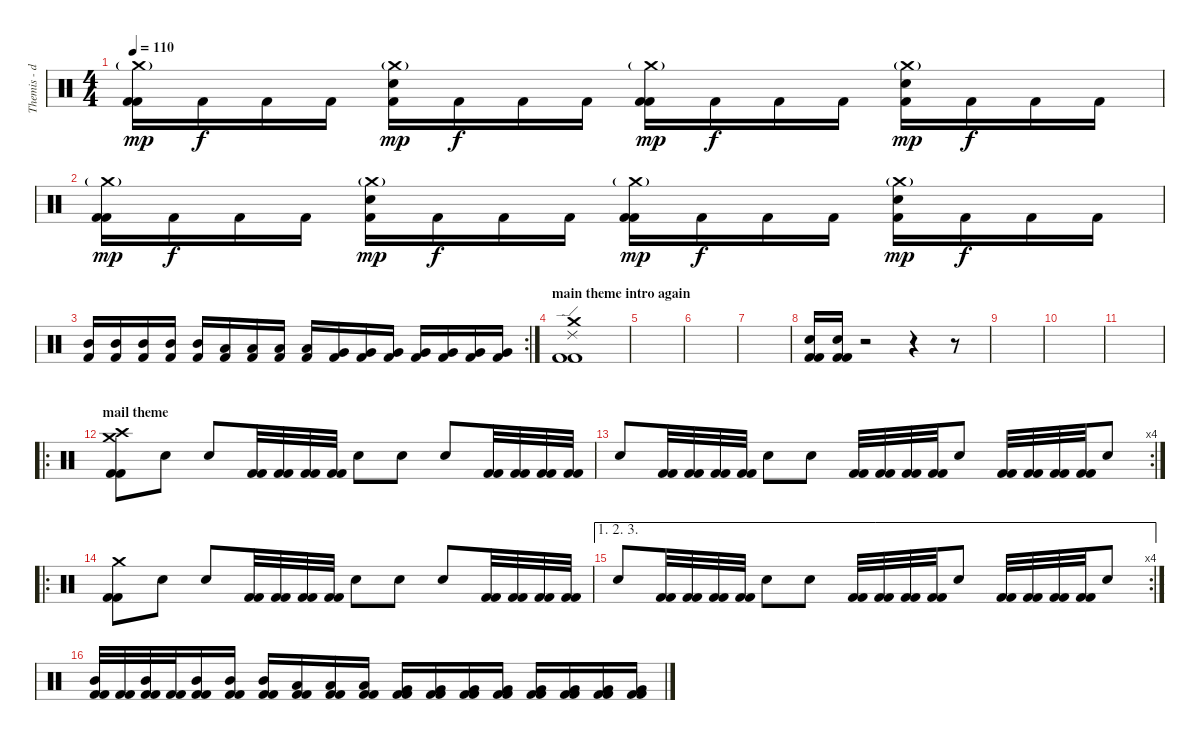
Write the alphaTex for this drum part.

\track ("Themis - drms" "Themis - d") {instrument percussion}
\staff {score}
\articulation defaults
\ts (4 4)
\tempo 110
\clef neutral
\ks c
("Crash medium (hit)"{g} "Kick (hit) 2" "Kick (hit) 2").16{dy mp} "Kick (hit) 2".16{dy f} "Kick (hit) 2".16 "Kick (hit) 2".16 ("Crash medium (hit)"{g} "Snare (hit) 2" "Kick (hit) 2").16{dy mp} "Kick (hit) 2".16{dy f} "Kick (hit) 2".16 "Kick (hit) 2".16 ("Crash medium (hit)"{g} "Kick (hit) 2" "Kick (hit) 2").16{dy mp} "Kick (hit) 2".16{dy f} "Kick (hit) 2".16 "Kick (hit) 2".16 ("Crash medium (hit)"{g} "Snare (hit) 2" "Kick (hit) 2").16{dy mp} "Kick (hit) 2".16{dy f} "Kick (hit) 2".16 "Kick (hit) 2".16 |
("Crash medium (hit)"{g} "Kick (hit) 2" "Kick (hit) 2").16{dy mp} "Kick (hit) 2".16{dy f} "Kick (hit) 2".16 "Kick (hit) 2".16 ("Crash medium (hit)"{g} "Snare (hit) 2" "Kick (hit) 2").16{dy mp} "Kick (hit) 2".16{dy f} "Kick (hit) 2".16 "Kick (hit) 2".16 ("Crash medium (hit)"{g} "Kick (hit) 2" "Kick (hit) 2").16{dy mp} "Kick (hit) 2".16{dy f} "Kick (hit) 2".16 "Kick (hit) 2".16 ("Crash medium (hit)"{g} "Snare (hit) 2" "Kick (hit) 2").16{dy mp} "Kick (hit) 2".16{dy f} "Kick (hit) 2".16 "Kick (hit) 2".16 |
\rc 2
("Mid Tom (hit)" "Kick (hit) 2").16 ("Mid Tom (hit)" "Kick (hit) 2").16 ("Mid Tom (hit)" "Kick (hit) 2").16 ("Mid Tom (hit)" "Kick (hit) 2").16 ("Mid Tom (hit)" "Kick (hit) 2").16 ("Low Tom (hit)" "Kick (hit) 2").16 ("Low Tom (hit)" "Kick (hit) 2").16 ("Low Tom (hit)" "Kick (hit) 2").16 ("Low Tom (hit)" "Kick (hit) 2").16 ("Very Low Tom (hit)" "Kick (hit) 2").16 ("Very Low Tom (hit)" "Kick (hit) 2").16 ("Very Low Tom (hit)" "Kick (hit) 2").16 ("Very Low Tom (hit)" "Kick (hit) 2").16 ("Very Low Tom (hit)" "Kick (hit) 2").16 ("Very Low Tom (hit)" "Kick (hit) 2").16 ("Very Low Tom (hit)" "Kick (hit) 2").16 |
\section ("" "main theme intro again")
("Crash medium (hit)" "Ride (edge) 2" "Kick (hit) 2" "Kick (hit) 2").1 |
|
|
|
("Snare (hit) 2" "Kick (hit) 2" "Kick (hit) 2").16 ("Snare (hit) 2" "Kick (hit) 2" "Kick (hit) 2").16 r.2 r.4 r.8 |
|
|
|
\ro
\section ("" "mail theme")
("Crash medium (hit)" "Crash high (hit)" "Kick (hit) 2" "Kick (hit) 2").8 "Snare (hit)"{x}.8 "Snare (hit)"{x}.8 ("Kick (hit) 2" "Kick (hit) 2").32 ("Kick (hit) 2" "Kick (hit) 2").32 ("Kick (hit) 2" "Kick (hit) 2").32 ("Kick (hit) 2" "Kick (hit) 2").32 "Snare (hit)"{x}.8 "Snare (hit)"{x}.8 "Snare (hit)"{x}.8 ("Kick (hit) 2" "Kick (hit) 2").32 ("Kick (hit) 2" "Kick (hit) 2").32 ("Kick (hit) 2" "Kick (hit) 2").32 ("Kick (hit) 2" "Kick (hit) 2").32 |
\rc 4 "Snare (hit)"{x}.8
("Kick (hit) 2" "Kick (hit) 2").32 ("Kick (hit) 2" "Kick (hit) 2").32 ("Kick (hit) 2" "Kick (hit) 2").32 ("Kick (hit) 2" "Kick (hit) 2").32 "Snare (hit)"{x}.8 "Snare (hit)"{x}.8 ("Kick (hit) 2" "Kick (hit) 2").32 ("Kick (hit) 2" "Kick (hit) 2").32 ("Kick (hit) 2" "Kick (hit) 2").32 ("Kick (hit) 2" "Kick (hit) 2").32 "Snare (hit)"{x}.8 ("Kick (hit) 2" "Kick (hit) 2").32 ("Kick (hit) 2" "Kick (hit) 2").32 ("Kick (hit) 2" "Kick (hit) 2").32 ("Kick (hit) 2" "Kick (hit) 2").32 "Snare (hit)"{x}.8 |
\ro
("Crash medium (hit)" "Kick (hit) 2" "Kick (hit) 2").8 "Snare (hit)"{x}.8 "Snare (hit)"{x}.8 ("Kick (hit) 2" "Kick (hit) 2").32 ("Kick (hit) 2" "Kick (hit) 2").32 ("Kick (hit) 2" "Kick (hit) 2").32 ("Kick (hit) 2" "Kick (hit) 2").32 "Snare (hit)"{x}.8 "Snare (hit)"{x}.8 "Snare (hit)"{x}.8 ("Kick (hit) 2" "Kick (hit) 2").32 ("Kick (hit) 2" "Kick (hit) 2").32 ("Kick (hit) 2" "Kick (hit) 2").32 ("Kick (hit) 2" "Kick (hit) 2").32 |
\ae (1 2 3)
\rc 4 "Snare (hit)"{x}.8
("Kick (hit) 2" "Kick (hit) 2").32 ("Kick (hit) 2" "Kick (hit) 2").32 ("Kick (hit) 2" "Kick (hit) 2").32 ("Kick (hit) 2" "Kick (hit) 2").32 "Snare (hit)"{x}.8 "Snare (hit)"{x}.8 ("Kick (hit) 2" "Kick (hit) 2").32 ("Kick (hit) 2" "Kick (hit) 2").32 ("Kick (hit) 2" "Kick (hit) 2").32 ("Kick (hit) 2" "Kick (hit) 2").32 "Snare (hit)"{x}.8 ("Kick (hit) 2" "Kick (hit) 2").32 ("Kick (hit) 2" "Kick (hit) 2").32 ("Kick (hit) 2" "Kick (hit) 2").32 ("Kick (hit) 2" "Kick (hit) 2").32 "Snare (hit)"{x}.8 |
("Mid Tom (hit)" "Kick (hit) 2" "Kick (hit) 2").32 ("Kick (hit) 2" "Kick (hit) 2").32 ("Mid Tom (hit)" "Kick (hit) 2" "Kick (hit) 2").32 ("Kick (hit) 2" "Kick (hit) 2").32 ("Mid Tom (hit)" "Kick (hit) 2" "Kick (hit) 2").16 ("Mid Tom (hit)" "Kick (hit) 2" "Kick (hit) 2").16 ("Mid Tom (hit)" "Kick (hit) 2" "Kick (hit) 2").16 ("Low Tom (hit)" "Kick (hit) 2" "Kick (hit) 2").16 ("Low Tom (hit)" "Kick (hit) 2" "Kick (hit) 2").16 ("Low Tom (hit)" "Kick (hit) 2" "Kick (hit) 2").16 ("Very Low Tom (hit)" "Kick (hit) 2" "Kick (hit) 2").16 ("Very Low Tom (hit)" "Kick (hit) 2" "Kick (hit) 2").16 ("Very Low Tom (hit)" "Kick (hit) 2" "Kick (hit) 2").16 ("Very Low Tom (hit)" "Kick (hit) 2" "Kick (hit) 2").16 ("Very Low Tom (hit)" "Kick (hit) 2" "Kick (hit) 2").16 ("Very Low Tom (hit)" "Kick (hit) 2" "Kick (hit) 2").16 ("Very Low Tom (hit)" "Kick (hit) 2" "Kick (hit) 2").16 ("Very Low Tom (hit)" "Kick (hit) 2" "Kick (hit) 2").16
